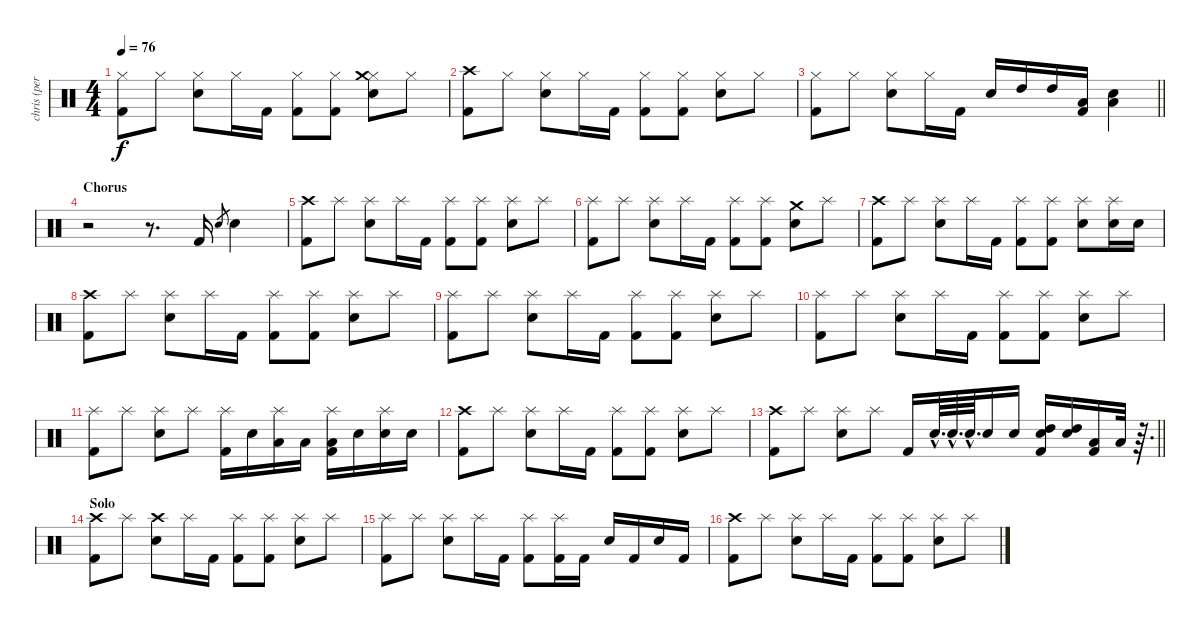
\track ("chris (percussion)" "chris (per") {instrument percussion}
\staff {score}
\articulation defaults
\ts (4 4)
\tempo 76
\clef neutral
\ks c
("Hi-Hat (closed)" "Kick (hit) 2").8{dy f} "Hi-Hat (closed)".8 ("Hi-Hat (closed)" "Electric Snare (hit)").8 "Hi-Hat (closed)".16 "Kick (hit) 2".16 ("Hi-Hat (closed)" "Kick (hit) 2").8 ("Hi-Hat (closed)" "Kick (hit) 2").8 ("Electric Snare (hit)" "Hi-Hat (closed)" "Crash medium (hit)").8 "Hi-Hat (closed)".8 |
("Crash high (hit)" "Kick (hit) 2").8 "Hi-Hat (closed)".8 ("Hi-Hat (closed)" "Electric Snare (hit)").8 "Hi-Hat (closed)".16 "Kick (hit) 2".16 ("Hi-Hat (closed)" "Kick (hit) 2").8 ("Hi-Hat (closed)" "Kick (hit) 2").8 ("Electric Snare (hit)" "Hi-Hat (closed)").8 "Hi-Hat (closed)".8 |
\barLineRight lightlight
("Hi-Hat (closed)" "Kick (hit) 2").8 "Hi-Hat (closed)".8 ("Hi-Hat (closed)" "Electric Snare (hit)").8 "Hi-Hat (closed)".16 "Kick (hit) 2".16 "Electric Snare (hit)".16 "High Tom (hit)".16 "High Tom (hit)".16 ("Low Floor Tom (hit)" "Kick (hit) 2").16 ("Low Floor Tom (hit)" "Electric Snare (hit)").4 |
\section ("" "Chorus")
r.2 r.8{d} "Kick (hit) 2".16 "Electric Snare (hit)".8{gr} "Electric Snare (hit)".4 |
("Crash high (hit)" "Kick (hit) 2").8 "Splash (hit)".8 ("Splash (hit)" "Electric Snare (hit)").8 "Splash (hit)".16 "Kick (hit) 2".16 ("Splash (hit)" "Kick (hit) 2").8 ("Splash (hit)" "Kick (hit) 2").8 ("Electric Snare (hit)" "Splash (hit)").8 "Splash (hit)".8 |
("Splash (hit)" "Kick (hit) 2").8 "Splash (hit)".8 ("Splash (hit)" "Electric Snare (hit)").8 "Splash (hit)".16 "Kick (hit) 2".16 ("Splash (hit)" "Kick (hit) 2").8 ("Splash (hit)" "Kick (hit) 2").8 ("Electric Snare (hit)" "Crash medium (hit)").8 "Splash (hit)".8 |
("Crash high (hit)" "Kick (hit) 2").8 "Splash (hit)".8 ("Splash (hit)" "Electric Snare (hit)").8 "Splash (hit)".16 "Kick (hit) 2".16 ("Splash (hit)" "Kick (hit) 2").8 ("Splash (hit)" "Kick (hit) 2").8 ("Electric Snare (hit)" "Splash (hit)").8 ("Electric Snare (hit)" "Splash (hit)").16 "Electric Snare (hit)".16 |
("Crash high (hit)" "Kick (hit) 2").8 "Splash (hit)".8 ("Splash (hit)" "Electric Snare (hit)").8 "Splash (hit)".16 "Kick (hit) 2".16 ("Splash (hit)" "Kick (hit) 2").8 ("Splash (hit)" "Kick (hit) 2").8 ("Electric Snare (hit)" "Splash (hit)").8 "Splash (hit)".8 |
("Splash (hit)" "Kick (hit) 2").8 "Splash (hit)".8 ("Splash (hit)" "Electric Snare (hit)").8 "Splash (hit)".16 "Kick (hit) 2".16 ("Splash (hit)" "Kick (hit) 2").8 ("Splash (hit)" "Kick (hit) 2").8 ("Electric Snare (hit)" "Splash (hit)").8 "Splash (hit)".8 |
("Splash (hit)" "Kick (hit) 2").8 "Splash (hit)".8 ("Splash (hit)" "Electric Snare (hit)").8 "Splash (hit)".16 "Kick (hit) 2".16 ("Splash (hit)" "Kick (hit) 2").8 ("Splash (hit)" "Kick (hit) 2").8 ("Electric Snare (hit)" "Splash (hit)").8 "Splash (hit)".8 |
("Splash (hit)" "Kick (hit) 2").8 "Splash (hit)".8 ("Splash (hit)" "Electric Snare (hit)").8 "Splash (hit)".8 ("Splash (hit)" "Kick (hit) 2").16 "Electric Snare (hit)".16 ("Low Floor Tom (hit)" "Splash (hit)").16 "Low Floor Tom (hit)".16 ("Splash (hit)" "Low Floor Tom (hit)" "Kick (hit) 2").16 "Electric Snare (hit)".16 ("Electric Snare (hit)" "Splash (hit)").16 "Electric Snare (hit)".16 |
("Crash high (hit)" "Kick (hit) 2").8 "Splash (hit)".8 ("Splash (hit)" "Electric Snare (hit)").8 "Splash (hit)".16 "Kick (hit) 2".16 ("Splash (hit)" "Kick (hit) 2").8 ("Splash (hit)" "Kick (hit) 2").8 ("Electric Snare (hit)" "Splash (hit)").8 "Splash (hit)".8 |
\barLineRight lightlight
("Crash high (hit)" "Kick (hit) 2").8 "Splash (hit)".8 ("Splash (hit)" "Electric Snare (hit)").8 "Splash (hit)".8 "Kick (hit) 2".16 "Electric Snare (hit)"{hac}.64{d} "Electric Snare (hit)"{hac}.64{d} "Electric Snare (hit)"{hac}.64{d} "Electric Snare (hit)".16 "Electric Snare (hit)".16 ("High Tom (hit)" "Electric Snare (hit)" "Kick (hit) 2").16 ("High Tom (hit)" "Electric Snare (hit)").16 ("Low Floor Tom (hit)" "Kick (hit) 2").16 "Low Floor Tom (hit)".32 r.64{d} |
\section ("" "Solo")
("Crash high (hit)" "Kick (hit) 2").8 "Splash (hit)".8 ("Crash high (hit)" "Electric Snare (hit)").8 "Splash (hit)".16 "Kick (hit) 2".16 ("Splash (hit)" "Kick (hit) 2").8 ("Splash (hit)" "Kick (hit) 2").8 ("Electric Snare (hit)" "Splash (hit)").8 "Splash (hit)".8 |
("Splash (hit)" "Kick (hit) 2").8 "Splash (hit)".8 ("Splash (hit)" "Electric Snare (hit)").8 "Splash (hit)".16 "Kick (hit) 2".16 ("Splash (hit)" "Kick (hit) 2").8 ("Splash (hit)" "Kick (hit) 2").16 "Kick (hit) 2".16 "Electric Snare (hit)".16 "Kick (hit) 2".16 "Electric Snare (hit)".16 "Kick (hit) 2".16 |
("Crash high (hit)" "Kick (hit) 2").8 "Splash (hit)".8 ("Splash (hit)" "Electric Snare (hit)").8 "Splash (hit)".16 "Kick (hit) 2".16 ("Splash (hit)" "Kick (hit) 2").8 ("Splash (hit)" "Kick (hit) 2").8 ("Electric Snare (hit)" "Splash (hit)").8 "Splash (hit)".8
